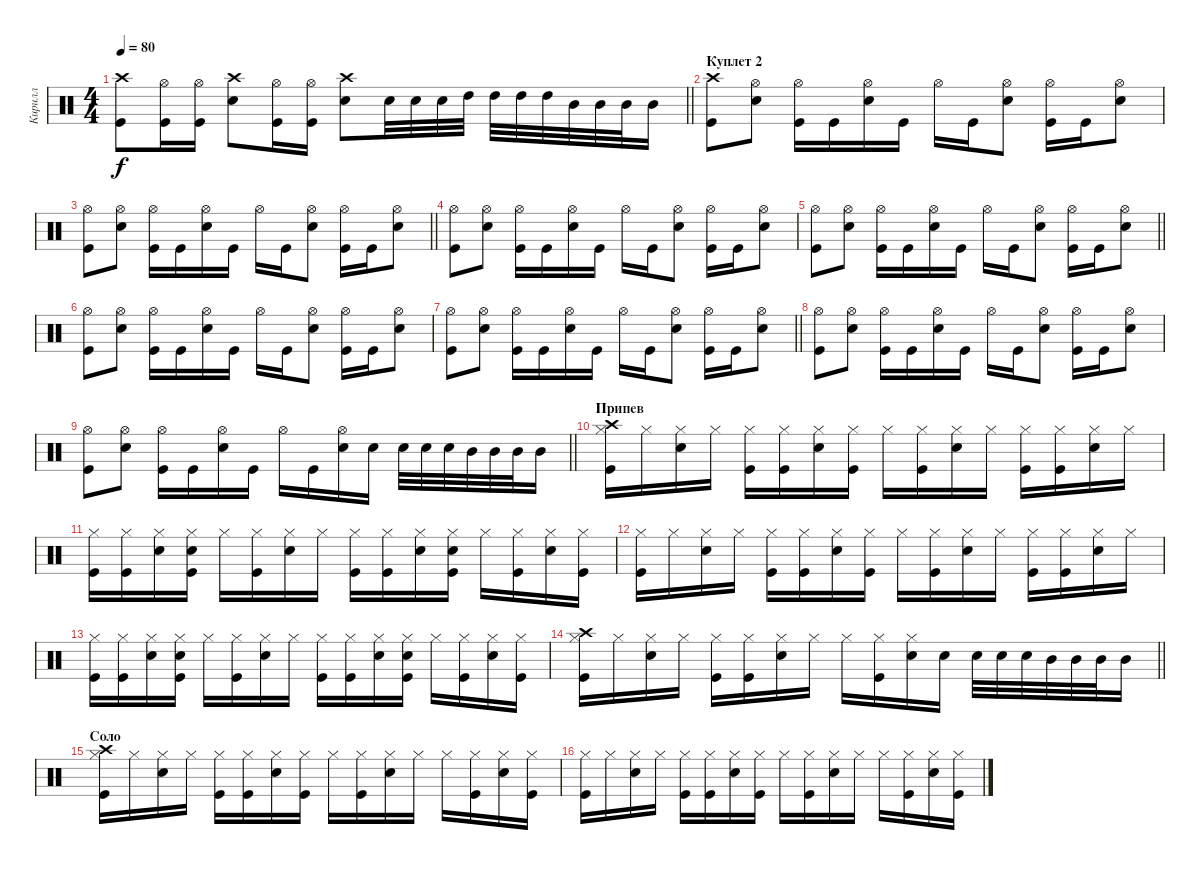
\track ("Кирилл" "Кирилл") {instrument percussion}
\staff {score}
\articulation defaults
\ts (4 4)
\tempo 80
\clef neutral
\barLineRight lightlight
\ks c
("Crash high (hit)" "Kick (hit)").8{dy f} ("Hi-Hat (open)" "Kick (hit)").16 ("Hi-Hat (open)" "Kick (hit)").16 ("Crash high (hit)" "Electric Snare (hit)").8 ("Hi-Hat (open)" "Kick (hit)").16 ("Hi-Hat (open)" "Kick (hit)").16 ("Crash high (hit)" "Electric Snare (hit)").8 "Electric Snare (hit)".32 "Electric Snare (hit)".32 "Electric Snare (hit)".32 "High Tom (hit)".32 "High Tom (hit)".32 "High Tom (hit)".32 "High Tom (hit)".32 "Mid Tom (hit)".32 "Mid Tom (hit)".32 "Mid Tom (hit)".32 "Mid Tom (hit)".16 |
\section ("" "Куплет 2")
("Crash high (hit)" "Kick (hit)").8 ("Hi-Hat (open)" "Electric Snare (hit)").8 ("Hi-Hat (open)" "Kick (hit)").16 "Kick (hit)".16 ("Hi-Hat (open)" "Electric Snare (hit)").16 "Kick (hit)".16 "Hi-Hat (open)".16 "Kick (hit)".16 ("Hi-Hat (open)" "Electric Snare (hit)").8 ("Hi-Hat (open)" "Kick (hit)").16 "Kick (hit)".16 ("Hi-Hat (open)" "Electric Snare (hit)").8 |
\barLineRight lightlight
("Hi-Hat (open)" "Kick (hit)").8 ("Hi-Hat (open)" "Electric Snare (hit)").8 ("Hi-Hat (open)" "Kick (hit)").16 "Kick (hit)".16 ("Hi-Hat (open)" "Electric Snare (hit)").16 "Kick (hit)".16 "Hi-Hat (open)".16 "Kick (hit)".16 ("Hi-Hat (open)" "Electric Snare (hit)").8 ("Hi-Hat (open)" "Kick (hit)").16 "Kick (hit)".16 ("Hi-Hat (open)" "Electric Snare (hit)").8 |
("Hi-Hat (open)" "Kick (hit)").8 ("Hi-Hat (open)" "Electric Snare (hit)").8 ("Hi-Hat (open)" "Kick (hit)").16 "Kick (hit)".16 ("Hi-Hat (open)" "Electric Snare (hit)").16 "Kick (hit)".16 "Hi-Hat (open)".16 "Kick (hit)".16 ("Hi-Hat (open)" "Electric Snare (hit)").8 ("Hi-Hat (open)" "Kick (hit)").16 "Kick (hit)".16 ("Hi-Hat (open)" "Electric Snare (hit)").8 |
\barLineRight lightlight
("Hi-Hat (open)" "Kick (hit)").8 ("Hi-Hat (open)" "Electric Snare (hit)").8 ("Hi-Hat (open)" "Kick (hit)").16 "Kick (hit)".16 ("Hi-Hat (open)" "Electric Snare (hit)").16 "Kick (hit)".16 "Hi-Hat (open)".16 "Kick (hit)".16 ("Hi-Hat (open)" "Electric Snare (hit)").8 ("Hi-Hat (open)" "Kick (hit)").16 "Kick (hit)".16 ("Hi-Hat (open)" "Electric Snare (hit)").8 |
("Hi-Hat (open)" "Kick (hit)").8 ("Hi-Hat (open)" "Electric Snare (hit)").8 ("Hi-Hat (open)" "Kick (hit)").16 "Kick (hit)".16 ("Hi-Hat (open)" "Electric Snare (hit)").16 "Kick (hit)".16 "Hi-Hat (open)".16 "Kick (hit)".16 ("Hi-Hat (open)" "Electric Snare (hit)").8 ("Hi-Hat (open)" "Kick (hit)").16 "Kick (hit)".16 ("Hi-Hat (open)" "Electric Snare (hit)").8 |
\barLineRight lightlight
("Hi-Hat (open)" "Kick (hit)").8 ("Hi-Hat (open)" "Electric Snare (hit)").8 ("Hi-Hat (open)" "Kick (hit)").16 "Kick (hit)".16 ("Hi-Hat (open)" "Electric Snare (hit)").16 "Kick (hit)".16 "Hi-Hat (open)".16 "Kick (hit)".16 ("Hi-Hat (open)" "Electric Snare (hit)").8 ("Hi-Hat (open)" "Kick (hit)").16 "Kick (hit)".16 ("Hi-Hat (open)" "Electric Snare (hit)").8 |
("Hi-Hat (open)" "Kick (hit)").8 ("Hi-Hat (open)" "Electric Snare (hit)").8 ("Hi-Hat (open)" "Kick (hit)").16 "Kick (hit)".16 ("Hi-Hat (open)" "Electric Snare (hit)").16 "Kick (hit)".16 "Hi-Hat (open)".16 "Kick (hit)".16 ("Hi-Hat (open)" "Electric Snare (hit)").8 ("Hi-Hat (open)" "Kick (hit)").16 "Kick (hit)".16 ("Hi-Hat (open)" "Electric Snare (hit)").8 |
\barLineRight lightlight
("Hi-Hat (open)" "Kick (hit)").8 ("Hi-Hat (open)" "Electric Snare (hit)").8 ("Hi-Hat (open)" "Kick (hit)").16 "Kick (hit)".16 ("Hi-Hat (open)" "Electric Snare (hit)").16 "Kick (hit)".16 "Hi-Hat (open)".16 "Kick (hit)".16 ("Hi-Hat (open)" "Electric Snare (hit)").16 "Electric Snare (hit)".16 "Electric Snare (hit)".32 "Electric Snare (hit)".32 "Electric Snare (hit)".32 "Mid Tom (hit)".32 "Mid Tom (hit)".32 "Mid Tom (hit)".32 "Mid Tom (hit)".16 |
\section ("" "Припев")
("Hi-Hat (closed)" "Crash high (hit)" "Kick (hit)").16 "Hi-Hat (closed)".16 ("Hi-Hat (closed)" "Electric Snare (hit)").16 "Hi-Hat (closed)".16 ("Hi-Hat (closed)" "Kick (hit)").16 ("Hi-Hat (closed)" "Kick (hit)").16 ("Hi-Hat (closed)" "Electric Snare (hit)").16 ("Hi-Hat (closed)" "Kick (hit)").16 "Hi-Hat (closed)".16 ("Hi-Hat (closed)" "Kick (hit)").16 ("Hi-Hat (closed)" "Electric Snare (hit)").16 "Hi-Hat (closed)".16 ("Hi-Hat (closed)" "Kick (hit)").16 ("Hi-Hat (closed)" "Kick (hit)").16 ("Hi-Hat (closed)" "Electric Snare (hit)").16 "Hi-Hat (closed)".16 |
("Hi-Hat (closed)" "Kick (hit)").16 ("Hi-Hat (closed)" "Kick (hit)").16 ("Hi-Hat (closed)" "Electric Snare (hit)").16 ("Hi-Hat (closed)" "Electric Snare (hit)" "Kick (hit)").16 "Hi-Hat (closed)".16 ("Hi-Hat (closed)" "Kick (hit)").16 ("Hi-Hat (closed)" "Electric Snare (hit)").16 "Hi-Hat (closed)".16 ("Hi-Hat (closed)" "Kick (hit)").16 ("Hi-Hat (closed)" "Kick (hit)").16 ("Hi-Hat (closed)" "Electric Snare (hit)").16 ("Hi-Hat (closed)" "Electric Snare (hit)" "Kick (hit)").16 "Hi-Hat (closed)".16 ("Hi-Hat (closed)" "Kick (hit)").16 ("Hi-Hat (closed)" "Electric Snare (hit)").16 ("Hi-Hat (closed)" "Kick (hit)").16 |
("Hi-Hat (closed)" "Kick (hit)").16 "Hi-Hat (closed)".16 ("Hi-Hat (closed)" "Electric Snare (hit)").16 "Hi-Hat (closed)".16 ("Hi-Hat (closed)" "Kick (hit)").16 ("Hi-Hat (closed)" "Kick (hit)").16 ("Hi-Hat (closed)" "Electric Snare (hit)").16 ("Hi-Hat (closed)" "Kick (hit)").16 "Hi-Hat (closed)".16 ("Hi-Hat (closed)" "Kick (hit)").16 ("Hi-Hat (closed)" "Electric Snare (hit)").16 "Hi-Hat (closed)".16 ("Hi-Hat (closed)" "Kick (hit)").16 ("Hi-Hat (closed)" "Kick (hit)").16 ("Hi-Hat (closed)" "Electric Snare (hit)").16 "Hi-Hat (closed)".16 |
("Hi-Hat (closed)" "Kick (hit)").16 ("Hi-Hat (closed)" "Kick (hit)").16 ("Hi-Hat (closed)" "Electric Snare (hit)").16 ("Hi-Hat (closed)" "Electric Snare (hit)" "Kick (hit)").16 "Hi-Hat (closed)".16 ("Hi-Hat (closed)" "Kick (hit)").16 ("Hi-Hat (closed)" "Electric Snare (hit)").16 "Hi-Hat (closed)".16 ("Hi-Hat (closed)" "Kick (hit)").16 ("Hi-Hat (closed)" "Kick (hit)").16 ("Hi-Hat (closed)" "Electric Snare (hit)").16 ("Hi-Hat (closed)" "Electric Snare (hit)" "Kick (hit)").16 "Hi-Hat (closed)".16 ("Hi-Hat (closed)" "Kick (hit)").16 ("Hi-Hat (closed)" "Electric Snare (hit)").16 ("Hi-Hat (closed)" "Kick (hit)").16 |
\barLineRight lightlight
("Hi-Hat (closed)" "Crash high (hit)" "Kick (hit)").16 "Hi-Hat (closed)".16 ("Hi-Hat (closed)" "Electric Snare (hit)").16 "Hi-Hat (closed)".16 ("Hi-Hat (closed)" "Kick (hit)").16 ("Hi-Hat (closed)" "Kick (hit)").16 ("Hi-Hat (closed)" "Electric Snare (hit)").16 "Hi-Hat (closed)".16 "Hi-Hat (closed)".16 ("Hi-Hat (closed)" "Kick (hit)").16 ("Hi-Hat (closed)" "Electric Snare (hit)").16 "Electric Snare (hit)".16 "Electric Snare (hit)".32 "Electric Snare (hit)".32 "Electric Snare (hit)".32 "Mid Tom (hit)".32 "Mid Tom (hit)".32 "Mid Tom (hit)".32 "Mid Tom (hit)".16 |
\section ("" "Соло")
("Hi-Hat (closed)" "Crash high (hit)" "Kick (hit)").16 "Hi-Hat (closed)".16 ("Hi-Hat (closed)" "Electric Snare (hit)").16 "Hi-Hat (closed)".16 ("Hi-Hat (closed)" "Kick (hit)").16 ("Hi-Hat (closed)" "Kick (hit)").16 ("Hi-Hat (closed)" "Electric Snare (hit)").16 ("Hi-Hat (closed)" "Kick (hit)").16 "Hi-Hat (closed)".16 ("Hi-Hat (closed)" "Kick (hit)").16 ("Hi-Hat (closed)" "Electric Snare (hit)").16 "Hi-Hat (closed)".16 "Hi-Hat (closed)".16 ("Hi-Hat (closed)" "Kick (hit)").16 ("Hi-Hat (closed)" "Electric Snare (hit)").16 ("Hi-Hat (closed)" "Kick (hit)").16 |
("Hi-Hat (closed)" "Kick (hit)").16 "Hi-Hat (closed)".16 ("Hi-Hat (closed)" "Electric Snare (hit)").16 "Hi-Hat (closed)".16 ("Hi-Hat (closed)" "Kick (hit)").16 ("Hi-Hat (closed)" "Kick (hit)").16 ("Hi-Hat (closed)" "Electric Snare (hit)").16 ("Hi-Hat (closed)" "Kick (hit)").16 "Hi-Hat (closed)".16 ("Hi-Hat (closed)" "Kick (hit)").16 ("Hi-Hat (closed)" "Electric Snare (hit)").16 "Hi-Hat (closed)".16 "Hi-Hat (closed)".16 ("Hi-Hat (closed)" "Kick (hit)").16 ("Hi-Hat (closed)" "Electric Snare (hit)").16 ("Hi-Hat (closed)" "Kick (hit)").16
